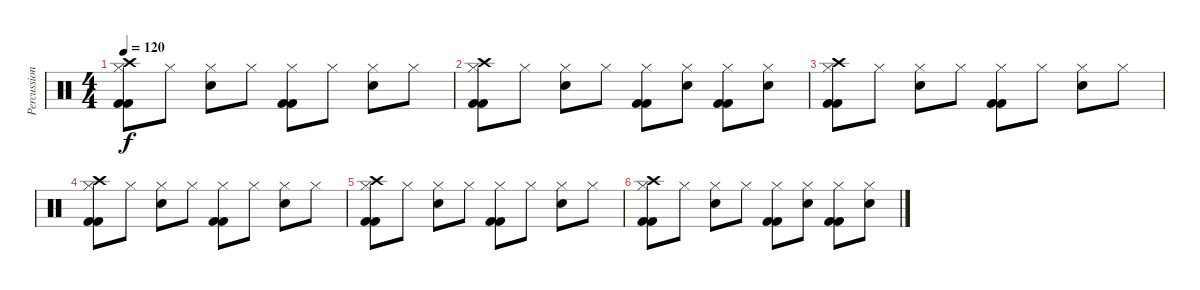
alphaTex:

\track ("Percussion" "Percussion") {instrument percussion}
\staff {score}
\articulation defaults
\ts (4 4)
\tempo 120
\clef neutral
\ks c
("Hi-Hat (closed)" "Crash high (hit)" "Kick (hit) 2" "Kick (hit) 2").8{dy f} "Hi-Hat (closed)".8 ("Hi-Hat (closed)" "Electric Snare (hit)").8 "Hi-Hat (closed)".8 ("Hi-Hat (closed)" "Kick (hit) 2" "Kick (hit) 2").8 "Hi-Hat (closed)".8 ("Hi-Hat (closed)" "Electric Snare (hit)").8 "Hi-Hat (closed)".8 |
("Hi-Hat (closed)" "Crash high (hit)" "Kick (hit) 2" "Kick (hit) 2").8 "Hi-Hat (closed)".8 ("Hi-Hat (closed)" "Electric Snare (hit)").8 "Hi-Hat (closed)".8 ("Hi-Hat (closed)" "Kick (hit) 2" "Kick (hit) 2").8 ("Hi-Hat (closed)" "Electric Snare (hit)").8 ("Hi-Hat (closed)" "Kick (hit) 2" "Kick (hit) 2").8 ("Hi-Hat (closed)" "Electric Snare (hit)").8 |
("Hi-Hat (closed)" "Crash high (hit)" "Kick (hit) 2" "Kick (hit) 2").8 "Hi-Hat (closed)".8 ("Hi-Hat (closed)" "Electric Snare (hit)").8 "Hi-Hat (closed)".8 ("Hi-Hat (closed)" "Kick (hit) 2" "Kick (hit) 2").8 "Hi-Hat (closed)".8 ("Hi-Hat (closed)" "Electric Snare (hit)").8 "Hi-Hat (closed)".8 |
("Hi-Hat (closed)" "Crash high (hit)" "Kick (hit) 2" "Kick (hit) 2").8 "Hi-Hat (closed)".8 ("Hi-Hat (closed)" "Electric Snare (hit)").8 "Hi-Hat (closed)".8 ("Hi-Hat (closed)" "Kick (hit) 2" "Kick (hit) 2").8 "Hi-Hat (closed)".8 ("Hi-Hat (closed)" "Electric Snare (hit)").8 "Hi-Hat (closed)".8 |
("Hi-Hat (closed)" "Crash high (hit)" "Kick (hit) 2" "Kick (hit) 2").8 "Hi-Hat (closed)".8 ("Hi-Hat (closed)" "Electric Snare (hit)").8 "Hi-Hat (closed)".8 ("Hi-Hat (closed)" "Kick (hit) 2" "Kick (hit) 2").8 "Hi-Hat (closed)".8 ("Hi-Hat (closed)" "Electric Snare (hit)").8 "Hi-Hat (closed)".8 |
("Hi-Hat (closed)" "Crash high (hit)" "Kick (hit) 2" "Kick (hit) 2").8 "Hi-Hat (closed)".8 ("Hi-Hat (closed)" "Electric Snare (hit)").8 "Hi-Hat (closed)".8 ("Hi-Hat (closed)" "Kick (hit) 2" "Kick (hit) 2").8 ("Hi-Hat (closed)" "Electric Snare (hit)").8 ("Hi-Hat (closed)" "Kick (hit) 2" "Kick (hit) 2").8 ("Hi-Hat (closed)" "Electric Snare (hit)").8
